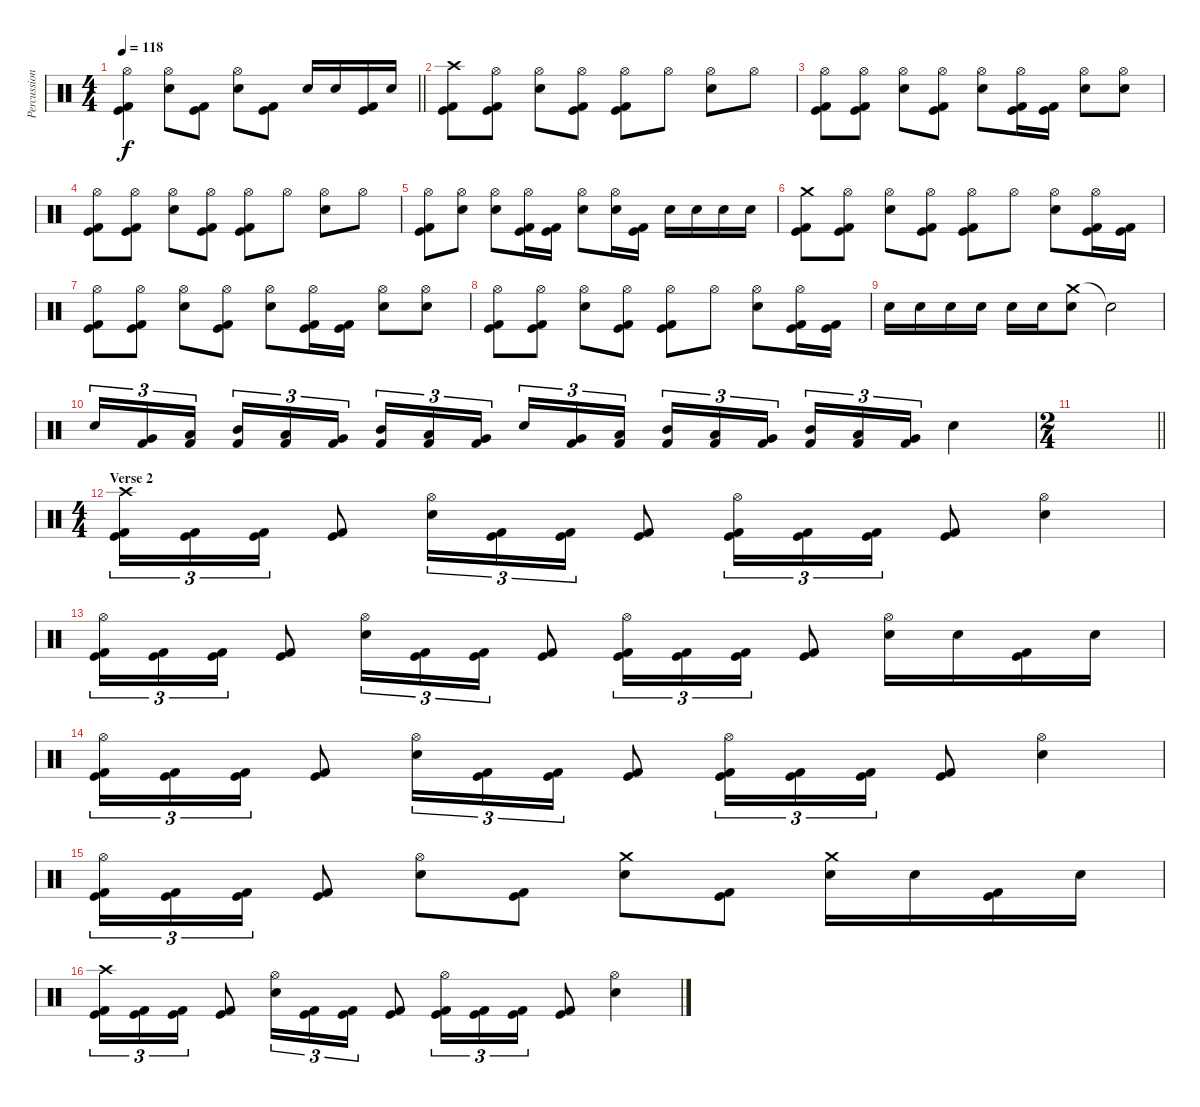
\track ("Percussion" "Percussion") {instrument percussion}
\staff {score}
\articulation defaults
\ts (4 4)
\tempo 118
\clef neutral
\barLineRight lightlight
\ks c
("Hi-Hat (open)" "Kick (hit)" "Kick (hit) 2").4{dy f} ("Hi-Hat (open)" "Electric Snare (hit)").8 ("Kick (hit)" "Kick (hit) 2").8 ("Hi-Hat (open)" "Electric Snare (hit)").8 ("Kick (hit)" "Kick (hit) 2").8 "Electric Snare (hit)".16 "Electric Snare (hit)".16 ("Kick (hit)" "Kick (hit) 2").16 "Electric Snare (hit)".16 |
\section ("" "")
("Crash high (hit)" "Kick (hit)" "Kick (hit) 2").8 ("Hi-Hat (open)" "Kick (hit)" "Kick (hit) 2").8 ("Hi-Hat (open)" "Electric Snare (hit)").8 ("Hi-Hat (open)" "Kick (hit)" "Kick (hit) 2").8 ("Hi-Hat (open)" "Kick (hit)" "Kick (hit) 2").8 "Hi-Hat (open)".8 ("Hi-Hat (open)" "Electric Snare (hit)").8 "Hi-Hat (open)".8 |
("Hi-Hat (open)" "Kick (hit)" "Kick (hit) 2").8 ("Hi-Hat (open)" "Kick (hit)" "Kick (hit) 2").8 ("Hi-Hat (open)" "Electric Snare (hit)").8 ("Hi-Hat (open)" "Kick (hit)" "Kick (hit) 2").8 ("Hi-Hat (open)" "Electric Snare (hit)").8 ("Hi-Hat (open)" "Kick (hit)" "Kick (hit) 2").16 ("Kick (hit)" "Kick (hit) 2").16 ("Hi-Hat (open)" "Electric Snare (hit)").8 ("Hi-Hat (open)" "Electric Snare (hit)").8 |
("Hi-Hat (open)" "Kick (hit)" "Kick (hit) 2").8 ("Hi-Hat (open)" "Kick (hit)" "Kick (hit) 2").8 ("Hi-Hat (open)" "Electric Snare (hit)").8 ("Hi-Hat (open)" "Kick (hit)" "Kick (hit) 2").8 ("Hi-Hat (open)" "Kick (hit)" "Kick (hit) 2").8 "Hi-Hat (open)".8 ("Hi-Hat (open)" "Electric Snare (hit)").8 "Hi-Hat (open)".8 |
("Hi-Hat (open)" "Kick (hit)" "Kick (hit) 2").8 ("Hi-Hat (open)" "Electric Snare (hit)").8 ("Hi-Hat (open)" "Electric Snare (hit)").8 ("Hi-Hat (open)" "Kick (hit)" "Kick (hit) 2").16 ("Kick (hit)" "Kick (hit) 2").16 ("Hi-Hat (open)" "Electric Snare (hit)").8 ("Hi-Hat (open)" "Electric Snare (hit)").16 ("Kick (hit)" "Kick (hit) 2").16 "Electric Snare (hit)".16 "Electric Snare (hit)".16 "Electric Snare (hit)".16 "Electric Snare (hit)".16 |
("Crash medium (hit)" "Kick (hit)" "Kick (hit) 2").8 ("Hi-Hat (open)" "Kick (hit)" "Kick (hit) 2").8 ("Hi-Hat (open)" "Electric Snare (hit)").8 ("Hi-Hat (open)" "Kick (hit)" "Kick (hit) 2").8 ("Hi-Hat (open)" "Kick (hit)" "Kick (hit) 2").8 "Hi-Hat (open)".8 ("Hi-Hat (open)" "Electric Snare (hit)").8 ("Hi-Hat (open)" "Kick (hit)" "Kick (hit) 2").16 ("Kick (hit)" "Kick (hit) 2").16 |
("Hi-Hat (open)" "Kick (hit)" "Kick (hit) 2").8 ("Hi-Hat (open)" "Kick (hit)" "Kick (hit) 2").8 ("Hi-Hat (open)" "Electric Snare (hit)").8 ("Hi-Hat (open)" "Kick (hit)" "Kick (hit) 2").8 ("Hi-Hat (open)" "Electric Snare (hit)").8 ("Hi-Hat (open)" "Kick (hit)" "Kick (hit) 2").16 ("Kick (hit)" "Kick (hit) 2").16 ("Hi-Hat (open)" "Electric Snare (hit)").8 ("Hi-Hat (open)" "Electric Snare (hit)").8 |
("Hi-Hat (open)" "Kick (hit)" "Kick (hit) 2").8 ("Hi-Hat (open)" "Kick (hit)" "Kick (hit) 2").8 ("Hi-Hat (open)" "Electric Snare (hit)").8 ("Hi-Hat (open)" "Kick (hit)" "Kick (hit) 2").8 ("Hi-Hat (open)" "Kick (hit)" "Kick (hit) 2").8 "Hi-Hat (open)".8 ("Hi-Hat (open)" "Electric Snare (hit)").8 ("Hi-Hat (open)" "Kick (hit)" "Kick (hit) 2").16 ("Kick (hit)" "Kick (hit) 2").16 |
"Electric Snare (hit)".16 "Electric Snare (hit)".16 "Electric Snare (hit)".16 "Electric Snare (hit)".16 "Electric Snare (hit)".16 "Electric Snare (hit)".16 ("Crash medium (hit)" "Electric Snare (hit)").8 "Snare (hit)"{t}.2 |
"Electric Snare (hit)".16{tu (3 2)} ("Very Low Tom (hit)" "Kick (hit) 2").16{tu (3 2)} ("Low Floor Tom (hit)" "Kick (hit) 2").16{tu (3 2) beam splitsecondary} ("Mid Tom (hit)" "Kick (hit) 2").16{tu (3 2)} ("Low Tom (hit)" "Kick (hit) 2").16{tu (3 2)} ("Very Low Tom (hit)" "Kick (hit) 2").16{tu (3 2)} ("Mid Tom (hit)" "Kick (hit) 2").16{tu (3 2)} ("Low Tom (hit)" "Kick (hit) 2").16{tu (3 2)} ("Very Low Tom (hit)" "Kick (hit) 2").16{tu (3 2) beam splitsecondary} "Electric Snare (hit)".16{tu (3 2)} ("Very Low Tom (hit)" "Kick (hit) 2").16{tu (3 2)} ("Low Floor Tom (hit)" "Kick (hit) 2").16{tu (3 2)} ("Mid Tom (hit)" "Kick (hit) 2").16{tu (3 2)} ("Low Tom (hit)" "Kick (hit) 2").16{tu (3 2)} ("Very Low Tom (hit)" "Kick (hit) 2").16{tu (3 2) beam splitsecondary} ("Mid Tom (hit)" "Kick (hit) 2").16{tu (3 2)} ("Low Tom (hit)" "Kick (hit) 2").16{tu (3 2)} ("Very Low Tom (hit)" "Kick (hit) 2").16{tu (3 2)} "Electric Snare (hit)".4 |
\ts (2 4)
\barLineRight lightlight
|
\ts (4 4)
\section ("" "Verse 2")
("Crash high (hit)" "Kick (hit)" "Kick (hit) 2").16{tu (3 2)} ("Kick (hit)" "Kick (hit) 2").16{tu (3 2)} ("Kick (hit)" "Kick (hit) 2").16{tu (3 2)} ("Kick (hit)" "Kick (hit) 2").8 ("Hi-Hat (open)" "Electric Snare (hit)").16{tu (3 2)} ("Kick (hit)" "Kick (hit) 2").16{tu (3 2)} ("Kick (hit)" "Kick (hit) 2").16{tu (3 2)} ("Kick (hit)" "Kick (hit) 2").8 ("Hi-Hat (open)" "Kick (hit)" "Kick (hit) 2").16{tu (3 2)} ("Kick (hit)" "Kick (hit) 2").16{tu (3 2)} ("Kick (hit)" "Kick (hit) 2").16{tu (3 2)} ("Kick (hit)" "Kick (hit) 2").8 ("Hi-Hat (open)" "Electric Snare (hit)").4 |
("Hi-Hat (open)" "Kick (hit)" "Kick (hit) 2").16{tu (3 2)} ("Kick (hit)" "Kick (hit) 2").16{tu (3 2)} ("Kick (hit)" "Kick (hit) 2").16{tu (3 2)} ("Kick (hit)" "Kick (hit) 2").8 ("Hi-Hat (open)" "Electric Snare (hit)").16{tu (3 2)} ("Kick (hit)" "Kick (hit) 2").16{tu (3 2)} ("Kick (hit)" "Kick (hit) 2").16{tu (3 2)} ("Kick (hit)" "Kick (hit) 2").8 ("Hi-Hat (open)" "Kick (hit)" "Kick (hit) 2").16{tu (3 2)} ("Kick (hit)" "Kick (hit) 2").16{tu (3 2)} ("Kick (hit)" "Kick (hit) 2").16{tu (3 2)} ("Kick (hit)" "Kick (hit) 2").8 ("Hi-Hat (open)" "Electric Snare (hit)").16 "Electric Snare (hit)".16 ("Kick (hit)" "Kick (hit) 2").16 "Electric Snare (hit)".16 |
("Hi-Hat (open)" "Kick (hit)" "Kick (hit) 2").16{tu (3 2)} ("Kick (hit)" "Kick (hit) 2").16{tu (3 2)} ("Kick (hit)" "Kick (hit) 2").16{tu (3 2)} ("Kick (hit)" "Kick (hit) 2").8 ("Hi-Hat (open)" "Electric Snare (hit)").16{tu (3 2)} ("Kick (hit)" "Kick (hit) 2").16{tu (3 2)} ("Kick (hit)" "Kick (hit) 2").16{tu (3 2)} ("Kick (hit)" "Kick (hit) 2").8 ("Hi-Hat (open)" "Kick (hit)" "Kick (hit) 2").16{tu (3 2)} ("Kick (hit)" "Kick (hit) 2").16{tu (3 2)} ("Kick (hit)" "Kick (hit) 2").16{tu (3 2)} ("Kick (hit)" "Kick (hit) 2").8 ("Hi-Hat (open)" "Electric Snare (hit)").4 |
("Hi-Hat (open)" "Kick (hit)" "Kick (hit) 2").16{tu (3 2)} ("Kick (hit)" "Kick (hit) 2").16{tu (3 2)} ("Kick (hit)" "Kick (hit) 2").16{tu (3 2)} ("Kick (hit)" "Kick (hit) 2").8 ("Hi-Hat (open)" "Electric Snare (hit)").8 ("Kick (hit)" "Kick (hit) 2").8 ("Crash medium (hit)" "Electric Snare (hit)").8 ("Kick (hit)" "Kick (hit) 2").8 ("Crash medium (hit)" "Electric Snare (hit)").16 "Electric Snare (hit)".16 ("Kick (hit)" "Kick (hit) 2").16 "Electric Snare (hit)".16 |
("Crash high (hit)" "Kick (hit)" "Kick (hit) 2").16{tu (3 2)} ("Kick (hit)" "Kick (hit) 2").16{tu (3 2)} ("Kick (hit)" "Kick (hit) 2").16{tu (3 2)} ("Kick (hit)" "Kick (hit) 2").8 ("Hi-Hat (open)" "Electric Snare (hit)").16{tu (3 2)} ("Kick (hit)" "Kick (hit) 2").16{tu (3 2)} ("Kick (hit)" "Kick (hit) 2").16{tu (3 2)} ("Kick (hit)" "Kick (hit) 2").8 ("Hi-Hat (open)" "Kick (hit)" "Kick (hit) 2").16{tu (3 2)} ("Kick (hit)" "Kick (hit) 2").16{tu (3 2)} ("Kick (hit)" "Kick (hit) 2").16{tu (3 2)} ("Kick (hit)" "Kick (hit) 2").8 ("Hi-Hat (open)" "Electric Snare (hit)").4
